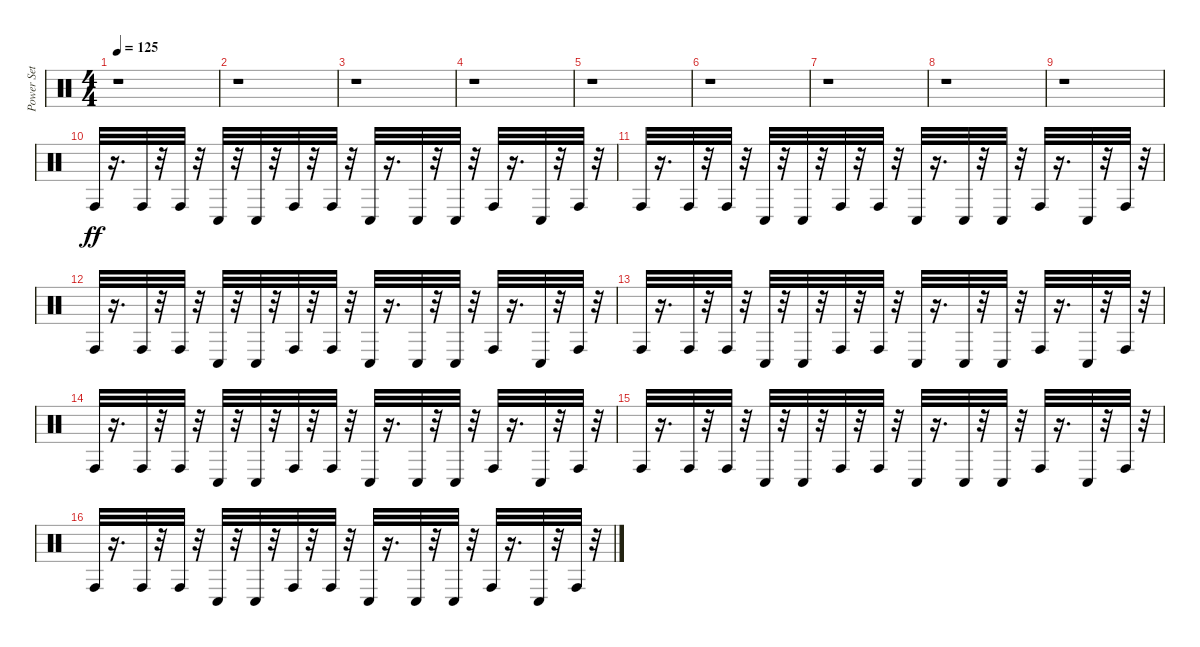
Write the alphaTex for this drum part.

\track ("Power Set" "Power Set") {instrument percussion}
\staff {score}
\articulation defaults
\ts (4 4)
\tempo 125
\clef neutral
\ks c
r.1{dy ff} |
r.1 |
r.1 |
r.1 |
r.1 |
r.1 |
r.1 |
r.1 |
r.1 |
"Conga high (hit)".32 r.16{d} "Conga high (hit)".32 r.32 "Conga high (hit)".32 r.32 "Conga low (hit)".32 r.32 "Conga low (hit)".32 r.32 "Conga high (hit)".32 r.32 "Conga high (hit)".32 r.32 "Conga low (hit)".32 r.16{d} "Conga low (hit)".32 r.32 "Conga low (hit)".32 r.32 "Conga high (hit)".32 r.16{d} "Conga low (hit)".32 r.32 "Conga high (hit)".32 r.32 |
"Conga high (hit)".32 r.16{d} "Conga high (hit)".32 r.32 "Conga high (hit)".32 r.32 "Conga low (hit)".32 r.32 "Conga low (hit)".32 r.32 "Conga high (hit)".32 r.32 "Conga high (hit)".32 r.32 "Conga low (hit)".32 r.16{d} "Conga low (hit)".32 r.32 "Conga low (hit)".32 r.32 "Conga high (hit)".32 r.16{d} "Conga low (hit)".32 r.32 "Conga high (hit)".32 r.32 |
"Conga high (hit)".32 r.16{d} "Conga high (hit)".32 r.32 "Conga high (hit)".32 r.32 "Conga low (hit)".32 r.32 "Conga low (hit)".32 r.32 "Conga high (hit)".32 r.32 "Conga high (hit)".32 r.32 "Conga low (hit)".32 r.16{d} "Conga low (hit)".32 r.32 "Conga low (hit)".32 r.32 "Conga high (hit)".32 r.16{d} "Conga low (hit)".32 r.32 "Conga high (hit)".32 r.32 |
"Conga high (hit)".32 r.16{d} "Conga high (hit)".32 r.32 "Conga high (hit)".32 r.32 "Conga low (hit)".32 r.32 "Conga low (hit)".32 r.32 "Conga high (hit)".32 r.32 "Conga high (hit)".32 r.32 "Conga low (hit)".32 r.16{d} "Conga low (hit)".32 r.32 "Conga low (hit)".32 r.32 "Conga high (hit)".32 r.16{d} "Conga low (hit)".32 r.32 "Conga high (hit)".32 r.32 |
"Conga high (hit)".32 r.16{d} "Conga high (hit)".32 r.32 "Conga high (hit)".32 r.32 "Conga low (hit)".32 r.32 "Conga low (hit)".32 r.32 "Conga high (hit)".32 r.32 "Conga high (hit)".32 r.32 "Conga low (hit)".32 r.16{d} "Conga low (hit)".32 r.32 "Conga low (hit)".32 r.32 "Conga high (hit)".32 r.16{d} "Conga low (hit)".32 r.32 "Conga high (hit)".32 r.32 |
"Conga high (hit)".32 r.16{d} "Conga high (hit)".32 r.32 "Conga high (hit)".32 r.32 "Conga low (hit)".32 r.32 "Conga low (hit)".32 r.32 "Conga high (hit)".32 r.32 "Conga high (hit)".32 r.32 "Conga low (hit)".32 r.16{d} "Conga low (hit)".32 r.32 "Conga low (hit)".32 r.32 "Conga high (hit)".32 r.16{d} "Conga low (hit)".32 r.32 "Conga high (hit)".32 r.32 |
"Conga high (hit)".32 r.16{d} "Conga high (hit)".32 r.32 "Conga high (hit)".32 r.32 "Conga low (hit)".32 r.32 "Conga low (hit)".32 r.32 "Conga high (hit)".32 r.32 "Conga high (hit)".32 r.32 "Conga low (hit)".32 r.16{d} "Conga low (hit)".32 r.32 "Conga low (hit)".32 r.32 "Conga high (hit)".32 r.16{d} "Conga low (hit)".32 r.32 "Conga high (hit)".32 r.32
